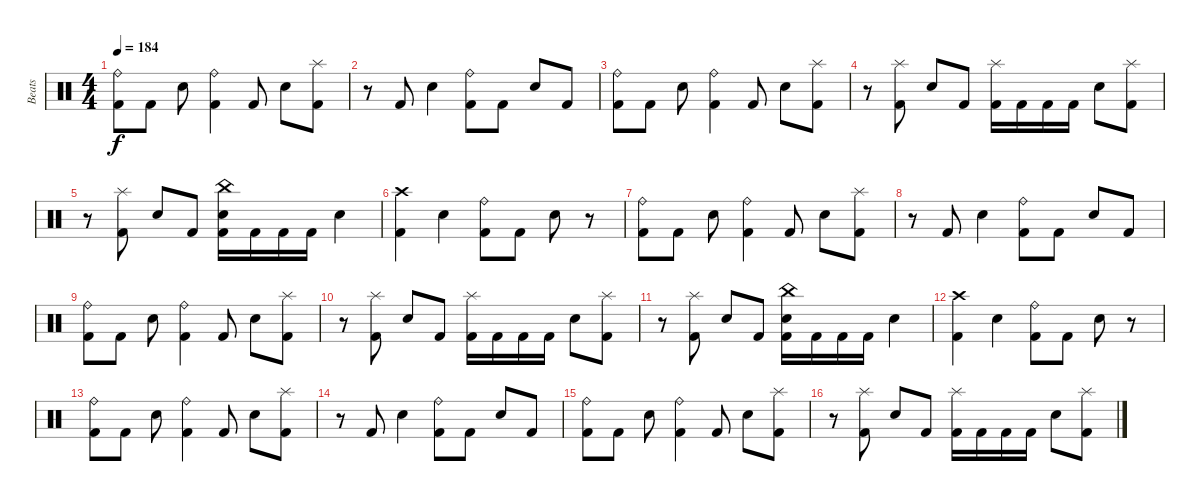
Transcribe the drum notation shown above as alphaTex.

\track ("Beats" "Beats") {instrument percussion}
\staff {score}
\articulation defaults
\ts (4 4)
\tempo 184
\clef neutral
\ks c
("Ride (bell)" "Kick (hit) 2").8{dy f} "Kick (hit) 2".8 "Electric Snare (hit)".8 ("Ride (bell)" "Kick (hit) 2").4 "Kick (hit) 2".8 "Electric Snare (hit)".8 ("Splash (hit)" "Kick (hit) 2").8 |
r.8 "Kick (hit) 2".8 "Electric Snare (hit)".4 ("Ride (bell)" "Kick (hit) 2").8 "Kick (hit) 2".8 "Electric Snare (hit)".8 "Kick (hit) 2".8 |
("Ride (bell)" "Kick (hit) 2").8 "Kick (hit) 2".8 "Electric Snare (hit)".8 ("Ride (bell)" "Kick (hit) 2").4 "Kick (hit) 2".8 "Electric Snare (hit)".8 ("Splash (hit)" "Kick (hit) 2").8 |
r.8 ("Splash (hit)" "Kick (hit) 2").8 "Electric Snare (hit)".8 "Kick (hit) 2".8 ("Splash (hit)" "Kick (hit) 2").16 "Kick (hit) 2".16 "Kick (hit) 2".16 "Kick (hit) 2".16 "Electric Snare (hit)".8 ("Splash (hit)" "Kick (hit) 2").8 |
r.8 ("Splash (hit)" "Kick (hit) 2").8 "Electric Snare (hit)".8 "Kick (hit) 2".8 ("China (hit)" "Electric Snare (hit)" "Kick (hit) 2").16 "Kick (hit) 2".16 "Kick (hit) 2".16 "Kick (hit) 2".16 "Electric Snare (hit)".4 |
("Crash high (hit)" "Kick (hit) 2").4 "Electric Snare (hit)".4 ("Ride (bell)" "Kick (hit) 2").8 "Kick (hit) 2".8 "Electric Snare (hit)".8 r.8 |
("Ride (bell)" "Kick (hit) 2").8 "Kick (hit) 2".8 "Electric Snare (hit)".8 ("Ride (bell)" "Kick (hit) 2").4 "Kick (hit) 2".8 "Electric Snare (hit)".8 ("Splash (hit)" "Kick (hit) 2").8 |
r.8 "Kick (hit) 2".8 "Electric Snare (hit)".4 ("Ride (bell)" "Kick (hit) 2").8 "Kick (hit) 2".8 "Electric Snare (hit)".8 "Kick (hit) 2".8 |
("Ride (bell)" "Kick (hit) 2").8 "Kick (hit) 2".8 "Electric Snare (hit)".8 ("Ride (bell)" "Kick (hit) 2").4 "Kick (hit) 2".8 "Electric Snare (hit)".8 ("Splash (hit)" "Kick (hit) 2").8 |
r.8 ("Splash (hit)" "Kick (hit) 2").8 "Electric Snare (hit)".8 "Kick (hit) 2".8 ("Splash (hit)" "Kick (hit) 2").16 "Kick (hit) 2".16 "Kick (hit) 2".16 "Kick (hit) 2".16 "Electric Snare (hit)".8 ("Splash (hit)" "Kick (hit) 2").8 |
r.8 ("Splash (hit)" "Kick (hit) 2").8 "Electric Snare (hit)".8 "Kick (hit) 2".8 ("China (hit)" "Electric Snare (hit)" "Kick (hit) 2").16 "Kick (hit) 2".16 "Kick (hit) 2".16 "Kick (hit) 2".16 "Electric Snare (hit)".4 |
("Crash high (hit)" "Kick (hit) 2").4 "Electric Snare (hit)".4 ("Ride (bell)" "Kick (hit) 2").8 "Kick (hit) 2".8 "Electric Snare (hit)".8 r.8 |
("Ride (bell)" "Kick (hit) 2").8 "Kick (hit) 2".8 "Electric Snare (hit)".8 ("Ride (bell)" "Kick (hit) 2").4 "Kick (hit) 2".8 "Electric Snare (hit)".8 ("Splash (hit)" "Kick (hit) 2").8 |
r.8 "Kick (hit) 2".8 "Electric Snare (hit)".4 ("Ride (bell)" "Kick (hit) 2").8 "Kick (hit) 2".8 "Electric Snare (hit)".8 "Kick (hit) 2".8 |
("Ride (bell)" "Kick (hit) 2").8 "Kick (hit) 2".8 "Electric Snare (hit)".8 ("Ride (bell)" "Kick (hit) 2").4 "Kick (hit) 2".8 "Electric Snare (hit)".8 ("Splash (hit)" "Kick (hit) 2").8 |
r.8 ("Splash (hit)" "Kick (hit) 2").8 "Electric Snare (hit)".8 "Kick (hit) 2".8 ("Splash (hit)" "Kick (hit) 2").16 "Kick (hit) 2".16 "Kick (hit) 2".16 "Kick (hit) 2".16 "Electric Snare (hit)".8 ("Splash (hit)" "Kick (hit) 2").8
